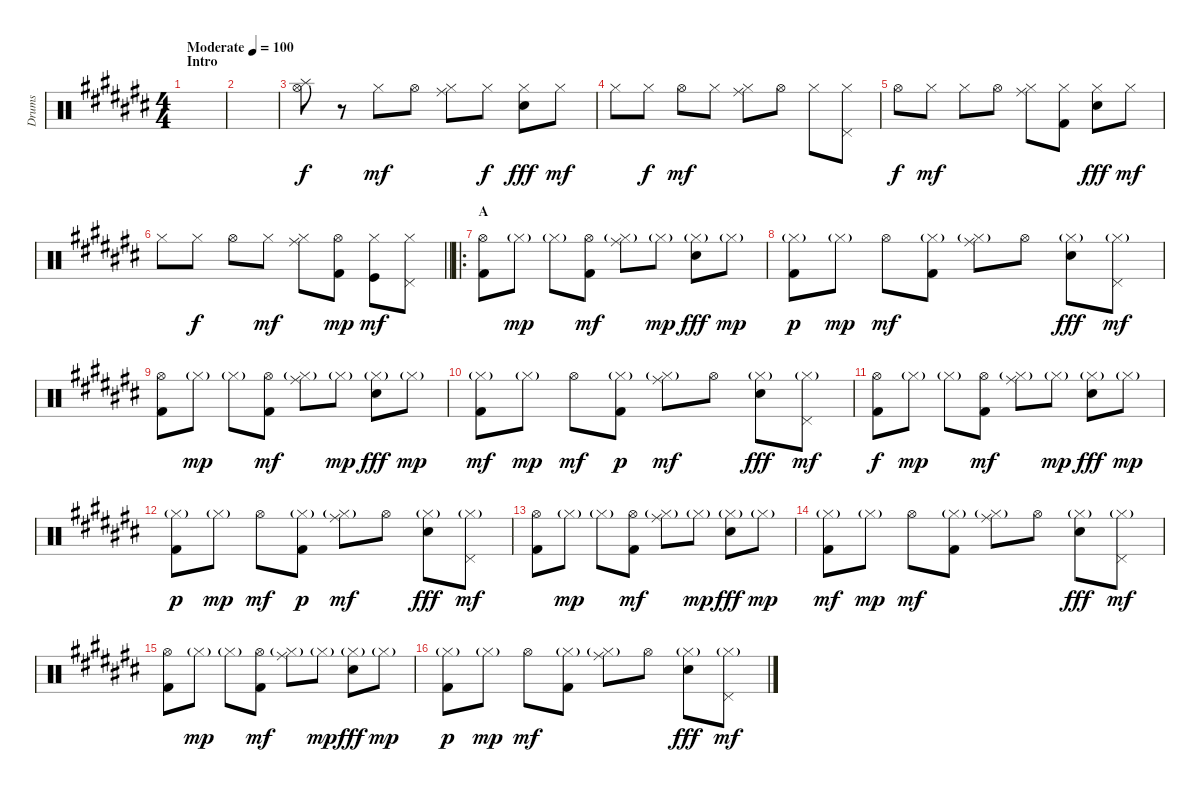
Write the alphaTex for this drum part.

\track ("Drums" "Drums") {instrument percussion}
\staff {score}
\articulation defaults
\ts (4 4)
\section ("" "Intro")
\tempo (100 "Moderate")
\clef neutral
\ks c#
|
|
("Hi-Hat (open)" "Splash (hit)").8 r.8 "Hi-Hat (closed)".8{dy mf} "Hi-Hat (open)".8 ("Hi-Hat (closed)" "Ride (middle)").8 "Hi-Hat (closed)".8{dy f} ("Hi-Hat (closed)" "Snare (hit) 2").8{dy fff} "Hi-Hat (closed)".8{dy mf} |
"Hi-Hat (closed)".8 "Hi-Hat (closed)".8{dy f} "Hi-Hat (open)".8{dy mf} "Hi-Hat (closed)".8 ("Hi-Hat (closed)" "Ride (middle)").8 "Hi-Hat (open)".8 "Hi-Hat (closed)".8 ("Hi-Hat (closed)" "Pedal Hi-Hat (hit)").8 |
"Hi-Hat (open)".8{dy f} "Hi-Hat (closed)".8{dy mf} "Hi-Hat (closed)".8 "Hi-Hat (open)".8 ("Hi-Hat (closed)" "Ride (middle)").8 ("Hi-Hat (closed)" "Kick (hit) 2").8 ("Hi-Hat (closed)" "Snare (hit) 2").8{dy fff} "Hi-Hat (closed)".8{dy mf} |
\barLineRight lightlight "Hi-Hat (closed)".8 "Hi-Hat (closed)".8{dy f} "Hi-Hat (open)".8 "Hi-Hat (closed)".8{dy mf}
("Hi-Hat (closed)" "Ride (middle)").8 ("Hi-Hat (open)" "Kick (hit) 2").8{dy mp} ("Hi-Hat (closed)" "Kick (hit)").8{dy mf} ("Hi-Hat (closed)" "Pedal Hi-Hat (hit)").8 |
\ro
\section ("" "A")
("Hi-Hat (open)" "Kick (hit) 2").8 "Hi-Hat (closed)"{g}.8{dy mp} "Hi-Hat (closed)"{g}.8 ("Hi-Hat (open)" "Kick (hit) 2").8{dy mf} ("Hi-Hat (closed)"{g} "Ride (middle)").8 "Hi-Hat (closed)"{g}.8{dy mp} ("Hi-Hat (closed)"{g} "Snare (hit) 2").8{dy fff} "Hi-Hat (closed)"{g}.8{dy mp} |
("Hi-Hat (closed)"{g} "Kick (hit) 2").8{dy p} "Hi-Hat (closed)"{g}.8{dy mp} "Hi-Hat (open)".8{dy mf} ("Hi-Hat (closed)"{g} "Kick (hit) 2").8 ("Hi-Hat (closed)"{g} "Ride (middle)").8 "Hi-Hat (open)".8 ("Hi-Hat (closed)"{g} "Snare (hit) 2").8{dy fff} ("Hi-Hat (closed)"{g} "Pedal Hi-Hat (hit)").8{dy mf} |
("Hi-Hat (open)" "Kick (hit) 2").8 "Hi-Hat (closed)"{g}.8{dy mp} "Hi-Hat (closed)"{g}.8 ("Hi-Hat (open)" "Kick (hit) 2").8{dy mf} ("Hi-Hat (closed)"{g} "Ride (middle)").8 "Hi-Hat (closed)"{g}.8{dy mp} ("Hi-Hat (closed)"{g} "Snare (hit) 2").8{dy fff} "Hi-Hat (closed)"{g}.8{dy mp} |
("Hi-Hat (closed)"{g} "Kick (hit) 2").8{dy mf} "Hi-Hat (closed)"{g}.8{dy mp} "Hi-Hat (open)".8{dy mf} ("Hi-Hat (closed)"{g} "Kick (hit) 2").8{dy p} ("Hi-Hat (closed)"{g} "Ride (middle)").8{dy mf} "Hi-Hat (open)".8 ("Hi-Hat (closed)"{g} "Snare (hit) 2").8{dy fff} ("Hi-Hat (closed)"{g} "Pedal Hi-Hat (hit)").8{dy mf} |
("Hi-Hat (open)" "Kick (hit) 2").8{dy f} "Hi-Hat (closed)"{g}.8{dy mp} "Hi-Hat (closed)"{g}.8 ("Hi-Hat (open)" "Kick (hit) 2").8{dy mf} ("Hi-Hat (closed)"{g} "Ride (middle)").8 "Hi-Hat (closed)"{g}.8{dy mp} ("Hi-Hat (closed)"{g} "Snare (hit) 2").8{dy fff} "Hi-Hat (closed)"{g}.8{dy mp} |
("Hi-Hat (closed)"{g} "Kick (hit) 2").8{dy p} "Hi-Hat (closed)"{g}.8{dy mp} "Hi-Hat (open)".8{dy mf} ("Hi-Hat (closed)"{g} "Kick (hit) 2").8{dy p} ("Hi-Hat (closed)"{g} "Ride (middle)").8{dy mf} "Hi-Hat (open)".8 ("Hi-Hat (closed)"{g} "Snare (hit) 2").8{dy fff} ("Hi-Hat (closed)"{g} "Pedal Hi-Hat (hit)").8{dy mf} |
("Hi-Hat (open)" "Kick (hit) 2").8 "Hi-Hat (closed)"{g}.8{dy mp} "Hi-Hat (closed)"{g}.8 ("Hi-Hat (open)" "Kick (hit) 2").8{dy mf} ("Hi-Hat (closed)"{g} "Ride (middle)").8 "Hi-Hat (closed)"{g}.8{dy mp} ("Hi-Hat (closed)"{g} "Snare (hit) 2").8{dy fff} "Hi-Hat (closed)"{g}.8{dy mp} |
("Hi-Hat (closed)"{g} "Kick (hit) 2").8{dy mf} "Hi-Hat (closed)"{g}.8{dy mp} "Hi-Hat (open)".8{dy mf} ("Hi-Hat (closed)"{g} "Kick (hit) 2").8 ("Hi-Hat (closed)"{g} "Ride (middle)").8 "Hi-Hat (open)".8 ("Hi-Hat (closed)"{g} "Snare (hit) 2").8{dy fff} ("Hi-Hat (closed)"{g} "Pedal Hi-Hat (hit)").8{dy mf} |
("Hi-Hat (open)" "Kick (hit) 2").8 "Hi-Hat (closed)"{g}.8{dy mp} "Hi-Hat (closed)"{g}.8 ("Hi-Hat (open)" "Kick (hit) 2").8{dy mf} ("Hi-Hat (closed)"{g} "Ride (middle)").8 "Hi-Hat (closed)"{g}.8{dy mp} ("Hi-Hat (closed)"{g} "Snare (hit) 2").8{dy fff} "Hi-Hat (closed)"{g}.8{dy mp} |
("Hi-Hat (closed)"{g} "Kick (hit) 2").8{dy p} "Hi-Hat (closed)"{g}.8{dy mp} "Hi-Hat (open)".8{dy mf} ("Hi-Hat (closed)"{g} "Kick (hit) 2").8 ("Hi-Hat (closed)"{g} "Ride (middle)").8 "Hi-Hat (open)".8 ("Hi-Hat (closed)"{g} "Snare (hit) 2").8{dy fff} ("Hi-Hat (closed)"{g} "Pedal Hi-Hat (hit)").8{dy mf}
